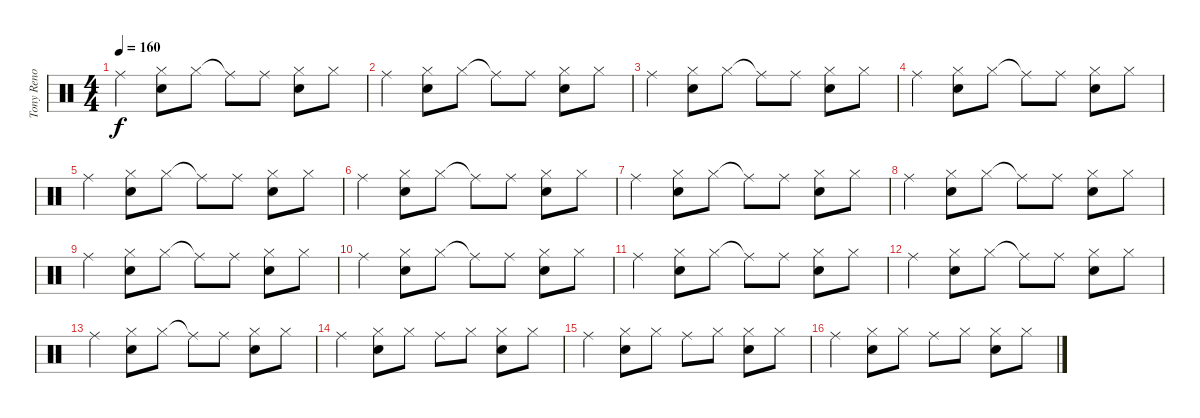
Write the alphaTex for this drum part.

\track ("Tony Reno" "Tony Reno") {instrument percussion}
\staff {score}
\articulation defaults
\ts (4 4)
\tempo 160
\clef neutral
\ks c "Ride (middle)".4{dy f}
("Hi-Hat (closed)" "Snare (hit) 2").8 "Hi-Hat (closed)".8 "Ride (middle)"{t}.8 "Ride (middle)".8 ("Hi-Hat (closed)" "Snare (hit) 2").8 "Hi-Hat (closed)".8 |
"Ride (middle)".4 ("Hi-Hat (closed)" "Snare (hit) 2").8 "Hi-Hat (closed)".8 "Ride (middle)"{t}.8 "Ride (middle)".8 ("Hi-Hat (closed)" "Snare (hit) 2").8 "Hi-Hat (closed)".8 |
"Ride (middle)".4 ("Hi-Hat (closed)" "Snare (hit) 2").8 "Hi-Hat (closed)".8 "Ride (middle)"{t}.8 "Ride (middle)".8 ("Hi-Hat (closed)" "Snare (hit) 2").8 "Hi-Hat (closed)".8 |
"Ride (middle)".4 ("Hi-Hat (closed)" "Snare (hit) 2").8 "Hi-Hat (closed)".8 "Ride (middle)"{t}.8 "Ride (middle)".8 ("Hi-Hat (closed)" "Snare (hit) 2").8 "Hi-Hat (closed)".8 |
"Ride (middle)".4 ("Hi-Hat (closed)" "Snare (hit) 2").8 "Hi-Hat (closed)".8 "Ride (middle)"{t}.8 "Ride (middle)".8 ("Hi-Hat (closed)" "Snare (hit) 2").8 "Hi-Hat (closed)".8 |
"Ride (middle)".4 ("Hi-Hat (closed)" "Snare (hit) 2").8 "Hi-Hat (closed)".8 "Ride (middle)"{t}.8 "Ride (middle)".8 ("Hi-Hat (closed)" "Snare (hit) 2").8 "Hi-Hat (closed)".8 |
"Ride (middle)".4 ("Hi-Hat (closed)" "Snare (hit) 2").8 "Hi-Hat (closed)".8 "Ride (middle)"{t}.8 "Ride (middle)".8 ("Hi-Hat (closed)" "Snare (hit) 2").8 "Hi-Hat (closed)".8 |
"Ride (middle)".4 ("Hi-Hat (closed)" "Snare (hit) 2").8 "Hi-Hat (closed)".8 "Ride (middle)"{t}.8 "Ride (middle)".8 ("Hi-Hat (closed)" "Snare (hit) 2").8 "Hi-Hat (closed)".8 |
"Ride (middle)".4 ("Hi-Hat (closed)" "Snare (hit) 2").8 "Hi-Hat (closed)".8 "Ride (middle)"{t}.8 "Ride (middle)".8 ("Hi-Hat (closed)" "Snare (hit) 2").8 "Hi-Hat (closed)".8 |
"Ride (middle)".4 ("Hi-Hat (closed)" "Snare (hit) 2").8 "Hi-Hat (closed)".8 "Ride (middle)"{t}.8 "Ride (middle)".8 ("Hi-Hat (closed)" "Snare (hit) 2").8 "Hi-Hat (closed)".8 |
"Ride (middle)".4 ("Hi-Hat (closed)" "Snare (hit) 2").8 "Hi-Hat (closed)".8 "Ride (middle)"{t}.8 "Ride (middle)".8 ("Hi-Hat (closed)" "Snare (hit) 2").8 "Hi-Hat (closed)".8 |
"Ride (middle)".4 ("Hi-Hat (closed)" "Snare (hit) 2").8 "Hi-Hat (closed)".8 "Ride (middle)"{t}.8 "Ride (middle)".8 ("Hi-Hat (closed)" "Snare (hit) 2").8 "Hi-Hat (closed)".8 |
"Ride (middle)".4 ("Hi-Hat (closed)" "Snare (hit) 2").8 "Hi-Hat (closed)".8 "Ride (middle)"{t}.8 "Ride (middle)".8 ("Hi-Hat (closed)" "Snare (hit) 2").8 "Hi-Hat (closed)".8 |
"Ride (middle)".4 ("Hi-Hat (closed)" "Snare (hit) 2").8 "Hi-Hat (closed)".8 "Ride (middle)".8 "Hi-Hat (closed)".8 ("Hi-Hat (closed)" "Snare (hit) 2").8 "Hi-Hat (closed)".8 |
"Ride (middle)".4 ("Hi-Hat (closed)" "Snare (hit) 2").8 "Hi-Hat (closed)".8 "Ride (middle)".8 "Hi-Hat (closed)".8 ("Hi-Hat (closed)" "Snare (hit) 2").8 "Hi-Hat (closed)".8 |
"Ride (middle)".4 ("Hi-Hat (closed)" "Snare (hit) 2").8 "Hi-Hat (closed)".8 "Ride (middle)".8 "Hi-Hat (closed)".8 ("Hi-Hat (closed)" "Snare (hit) 2").8 "Hi-Hat (closed)".8
